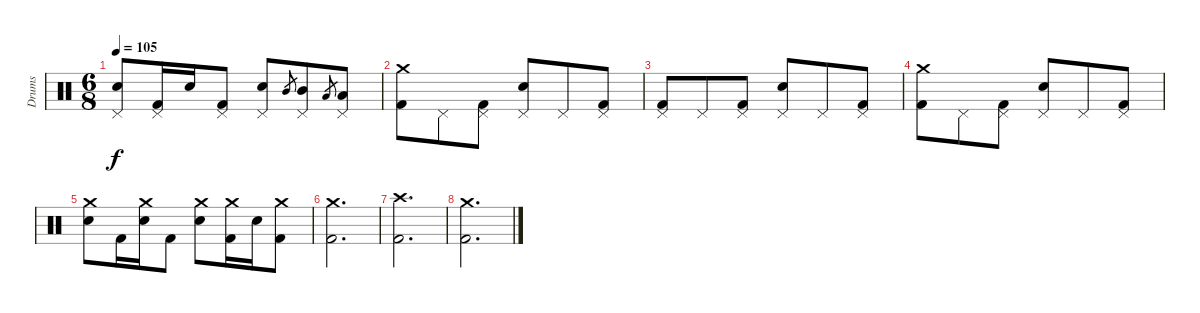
\track ("Drums" "Drums") {instrument percussion}
\staff {score}
\articulation defaults
\ts (6 8)
\tempo 105
\clef neutral
\ks c
("Pedal Hi-Hat (hit)" "Snare (hit) 2").8{dy f} ("Pedal Hi-Hat (hit)" "Kick (hit) 2").16 "Snare (hit) 2".16 ("Pedal Hi-Hat (hit)" "Kick (hit) 2").8 ("Pedal Hi-Hat (hit)" "Snare (hit) 2").8 "Mid Tom (hit)".8{gr} ("Pedal Hi-Hat (hit)" "Mid Tom (hit)").8 "Low Tom (hit)".8{gr} ("Pedal Hi-Hat (hit)" "Low Tom (hit)").8 |
("Crash medium (hit)" "Kick (hit) 2").8 "Pedal Hi-Hat (hit)".8 ("Pedal Hi-Hat (hit)" "Kick (hit) 2").8 ("Pedal Hi-Hat (hit)" "Snare (hit) 2").8 "Pedal Hi-Hat (hit)".8 ("Pedal Hi-Hat (hit)" "Kick (hit) 2").8 |
("Pedal Hi-Hat (hit)" "Kick (hit) 2").8 "Pedal Hi-Hat (hit)".8 ("Pedal Hi-Hat (hit)" "Kick (hit) 2").8 ("Pedal Hi-Hat (hit)" "Snare (hit) 2").8 "Pedal Hi-Hat (hit)".8 ("Pedal Hi-Hat (hit)" "Kick (hit) 2").8 |
("Crash medium (hit)" "Kick (hit) 2").8 "Pedal Hi-Hat (hit)".8 ("Pedal Hi-Hat (hit)" "Kick (hit) 2").8 ("Pedal Hi-Hat (hit)" "Snare (hit) 2").8 "Pedal Hi-Hat (hit)".8 ("Pedal Hi-Hat (hit)" "Kick (hit) 2").8 |
("Crash medium (hit)" "Snare (hit) 2").8 "Kick (hit) 2".16 ("Crash medium (hit)" "Snare (hit) 2").16 "Kick (hit) 2".8 ("Crash medium (hit)" "Snare (hit) 2").8 ("Crash medium (hit)" "Kick (hit) 2").16 "Snare (hit) 2".16 ("Crash medium (hit)" "Kick (hit) 2").8 |
("Crash medium (hit)" "Kick (hit) 2").2{d} |
("Crash high (hit)" "Kick (hit) 2").2{d} |
("Crash medium (hit)" "Kick (hit) 2").2{d}
